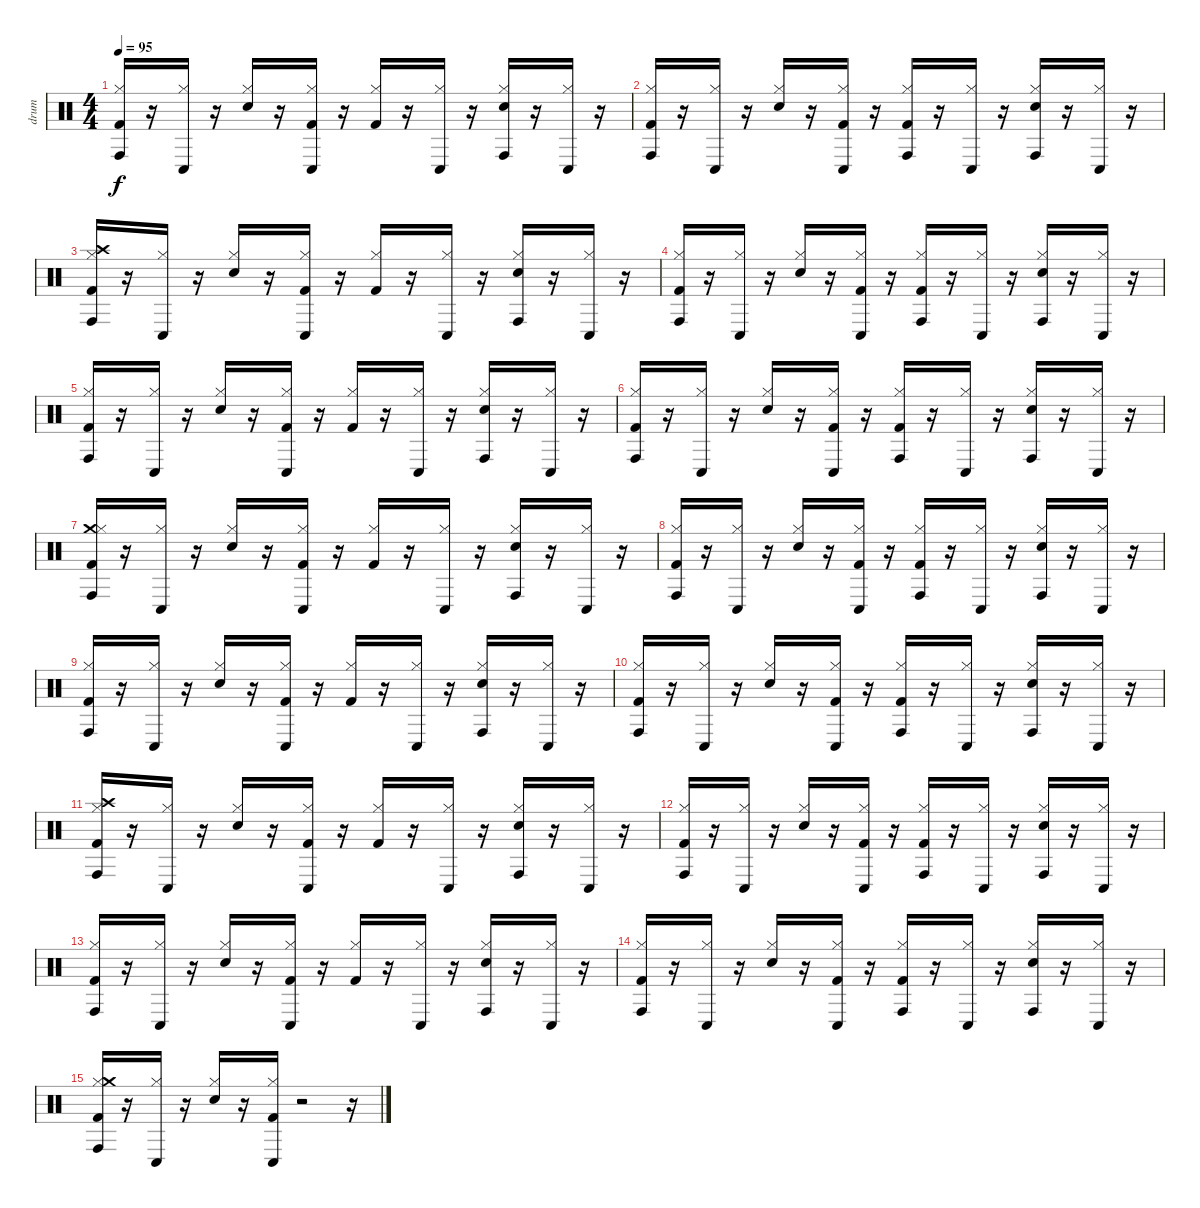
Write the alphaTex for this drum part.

\track ("drum" "drum") {instrument percussion}
\staff {score}
\articulation defaults
\ts (4 4)
\tempo 95
\clef neutral
\ks c
("Kick (hit) 2" "Conga high (hit)" "Hi-Hat (closed)").16{dy f} r.16 ("Conga low (hit)" "Hi-Hat (closed)").16 r.16 ("Hi-Hat (closed)" "Snare (hit) 2").16 r.16 ("Kick (hit) 2" "Hi-Hat (closed)" "Conga low (hit)").16 r.16 ("Hi-Hat (closed)" "Kick (hit) 2").16 r.16 ("Hi-Hat (closed)" "Conga low (hit)").16 r.16 ("Snare (hit) 2" "Conga high (hit)" "Hi-Hat (closed)").16 r.16 ("Hi-Hat (closed)" "Conga low (hit)").16 r.16 |
("Hi-Hat (closed)" "Conga high (hit)" "Kick (hit) 2").16 r.16 ("Hi-Hat (closed)" "Conga low (hit)").16 r.16 ("Snare (hit) 2" "Hi-Hat (closed)").16 r.16 ("Kick (hit) 2" "Hi-Hat (closed)" "Conga low (hit)").16 r.16 ("Kick (hit) 2" "Hi-Hat (closed)" "Conga high (hit)").16 r.16 ("Conga low (hit)" "Hi-Hat (closed)").16 r.16 ("Conga high (hit)" "Snare (hit) 2" "Hi-Hat (closed)").16 r.16 ("Conga low (hit)" "Hi-Hat (closed)").16 r.16 |
("Kick (hit) 2" "Conga high (hit)" "Hi-Hat (closed)" "Crash high (hit)").16 r.16 ("Hi-Hat (closed)" "Conga low (hit)").16 r.16 ("Hi-Hat (closed)" "Snare (hit) 2").16 r.16 ("Conga low (hit)" "Kick (hit) 2" "Hi-Hat (closed)").16 r.16 ("Hi-Hat (closed)" "Kick (hit) 2").16 r.16 ("Hi-Hat (closed)" "Conga low (hit)").16 r.16 ("Hi-Hat (closed)" "Conga high (hit)" "Snare (hit) 2").16 r.16 ("Conga low (hit)" "Hi-Hat (closed)").16 r.16 |
("Kick (hit) 2" "Hi-Hat (closed)" "Conga high (hit)").16 r.16 ("Conga low (hit)" "Hi-Hat (closed)").16 r.16 ("Hi-Hat (closed)" "Snare (hit) 2").16 r.16 ("Hi-Hat (closed)" "Kick (hit) 2" "Conga low (hit)").16 r.16 ("Conga high (hit)" "Kick (hit) 2" "Hi-Hat (closed)").16 r.16 ("Conga low (hit)" "Hi-Hat (closed)").16 r.16 ("Snare (hit) 2" "Conga high (hit)" "Hi-Hat (closed)").16 r.16 ("Hi-Hat (closed)" "Conga low (hit)").16 r.16 |
("Conga high (hit)" "Hi-Hat (closed)" "Kick (hit) 2").16 r.16 ("Conga low (hit)" "Hi-Hat (closed)").16 r.16 ("Hi-Hat (closed)" "Snare (hit) 2").16 r.16 ("Hi-Hat (closed)" "Kick (hit) 2" "Conga low (hit)").16 r.16 ("Hi-Hat (closed)" "Kick (hit) 2").16 r.16 ("Conga low (hit)" "Hi-Hat (closed)").16 r.16 ("Snare (hit) 2" "Hi-Hat (closed)" "Conga high (hit)").16 r.16 ("Hi-Hat (closed)" "Conga low (hit)").16 r.16 |
("Conga high (hit)" "Hi-Hat (closed)" "Kick (hit) 2").16 r.16 ("Conga low (hit)" "Hi-Hat (closed)").16 r.16 ("Snare (hit) 2" "Hi-Hat (closed)").16 r.16 ("Hi-Hat (closed)" "Conga low (hit)" "Kick (hit) 2").16 r.16 ("Kick (hit) 2" "Conga high (hit)" "Hi-Hat (closed)").16 r.16 ("Conga low (hit)" "Hi-Hat (closed)").16 r.16 ("Hi-Hat (closed)" "Conga high (hit)" "Snare (hit) 2").16 r.16 ("Conga low (hit)" "Hi-Hat (closed)").16 r.16 |
("Crash medium (hit)" "Kick (hit) 2" "Hi-Hat (closed)" "Conga high (hit)").16 r.16 ("Conga low (hit)" "Hi-Hat (closed)").16 r.16 ("Snare (hit) 2" "Hi-Hat (closed)").16 r.16 ("Hi-Hat (closed)" "Kick (hit) 2" "Conga low (hit)").16 r.16 ("Kick (hit) 2" "Hi-Hat (closed)").16 r.16 ("Conga low (hit)" "Hi-Hat (closed)").16 r.16 ("Conga high (hit)" "Snare (hit) 2" "Hi-Hat (closed)").16 r.16 ("Hi-Hat (closed)" "Conga low (hit)").16 r.16 |
("Hi-Hat (closed)" "Kick (hit) 2" "Conga high (hit)").16 r.16 ("Hi-Hat (closed)" "Conga low (hit)").16 r.16 ("Hi-Hat (closed)" "Snare (hit) 2").16 r.16 ("Hi-Hat (closed)" "Kick (hit) 2" "Conga low (hit)").16 r.16 ("Kick (hit) 2" "Hi-Hat (closed)" "Conga high (hit)").16 r.16 ("Conga low (hit)" "Hi-Hat (closed)").16 r.16 ("Hi-Hat (closed)" "Conga high (hit)" "Snare (hit) 2").16 r.16 ("Conga low (hit)" "Hi-Hat (closed)").16 r.16 |
("Conga high (hit)" "Hi-Hat (closed)" "Kick (hit) 2").16 r.16 ("Hi-Hat (closed)" "Conga low (hit)").16 r.16 ("Snare (hit) 2" "Hi-Hat (closed)").16 r.16 ("Conga low (hit)" "Kick (hit) 2" "Hi-Hat (closed)").16 r.16 ("Hi-Hat (closed)" "Kick (hit) 2").16 r.16 ("Hi-Hat (closed)" "Conga low (hit)").16 r.16 ("Conga high (hit)" "Hi-Hat (closed)" "Snare (hit) 2").16 r.16 ("Hi-Hat (closed)" "Conga low (hit)").16 r.16 |
("Kick (hit) 2" "Conga high (hit)" "Hi-Hat (closed)").16 r.16 ("Hi-Hat (closed)" "Conga low (hit)").16 r.16 ("Hi-Hat (closed)" "Snare (hit) 2").16 r.16 ("Kick (hit) 2" "Conga low (hit)" "Hi-Hat (closed)").16 r.16 ("Conga high (hit)" "Hi-Hat (closed)" "Kick (hit) 2").16 r.16 ("Conga low (hit)" "Hi-Hat (closed)").16 r.16 ("Snare (hit) 2" "Conga high (hit)" "Hi-Hat (closed)").16 r.16 ("Hi-Hat (closed)" "Conga low (hit)").16 r.16 |
("Crash high (hit)" "Hi-Hat (closed)" "Kick (hit) 2" "Conga high (hit)").16 r.16 ("Conga low (hit)" "Hi-Hat (closed)").16 r.16 ("Snare (hit) 2" "Hi-Hat (closed)").16 r.16 ("Hi-Hat (closed)" "Kick (hit) 2" "Conga low (hit)").16 r.16 ("Kick (hit) 2" "Hi-Hat (closed)").16 r.16 ("Hi-Hat (closed)" "Conga low (hit)").16 r.16 ("Hi-Hat (closed)" "Snare (hit) 2" "Conga high (hit)").16 r.16 ("Hi-Hat (closed)" "Conga low (hit)").16 r.16 |
("Hi-Hat (closed)" "Conga high (hit)" "Kick (hit) 2").16 r.16 ("Conga low (hit)" "Hi-Hat (closed)").16 r.16 ("Snare (hit) 2" "Hi-Hat (closed)").16 r.16 ("Kick (hit) 2" "Conga low (hit)" "Hi-Hat (closed)").16 r.16 ("Hi-Hat (closed)" "Kick (hit) 2" "Conga high (hit)").16 r.16 ("Conga low (hit)" "Hi-Hat (closed)").16 r.16 ("Hi-Hat (closed)" "Snare (hit) 2" "Conga high (hit)").16 r.16 ("Hi-Hat (closed)" "Conga low (hit)").16 r.16 |
("Conga high (hit)" "Kick (hit) 2" "Hi-Hat (closed)").16 r.16 ("Hi-Hat (closed)" "Conga low (hit)").16 r.16 ("Snare (hit) 2" "Hi-Hat (closed)").16 r.16 ("Kick (hit) 2" "Conga low (hit)" "Hi-Hat (closed)").16 r.16 ("Hi-Hat (closed)" "Kick (hit) 2").16 r.16 ("Conga low (hit)" "Hi-Hat (closed)").16 r.16 ("Snare (hit) 2" "Hi-Hat (closed)" "Conga high (hit)").16 r.16 ("Conga low (hit)" "Hi-Hat (closed)").16 r.16 |
("Kick (hit) 2" "Conga high (hit)" "Hi-Hat (closed)").16 r.16 ("Hi-Hat (closed)" "Conga low (hit)").16 r.16 ("Hi-Hat (closed)" "Snare (hit) 2").16 r.16 ("Conga low (hit)" "Kick (hit) 2" "Hi-Hat (closed)").16 r.16 ("Conga high (hit)" "Hi-Hat (closed)" "Kick (hit) 2").16 r.16 ("Hi-Hat (closed)" "Conga low (hit)").16 r.16 ("Conga high (hit)" "Snare (hit) 2" "Hi-Hat (closed)").16 r.16 ("Conga low (hit)" "Hi-Hat (closed)").16 r.16 |
("Kick (hit) 2" "Conga high (hit)" "Hi-Hat (closed)" "Crash medium (hit)").16 r.16 ("Hi-Hat (closed)" "Conga low (hit)").16 r.16 ("Hi-Hat (closed)" "Snare (hit) 2").16 r.16 ("Conga low (hit)" "Hi-Hat (closed)" "Kick (hit) 2").16 r.2 r.16
